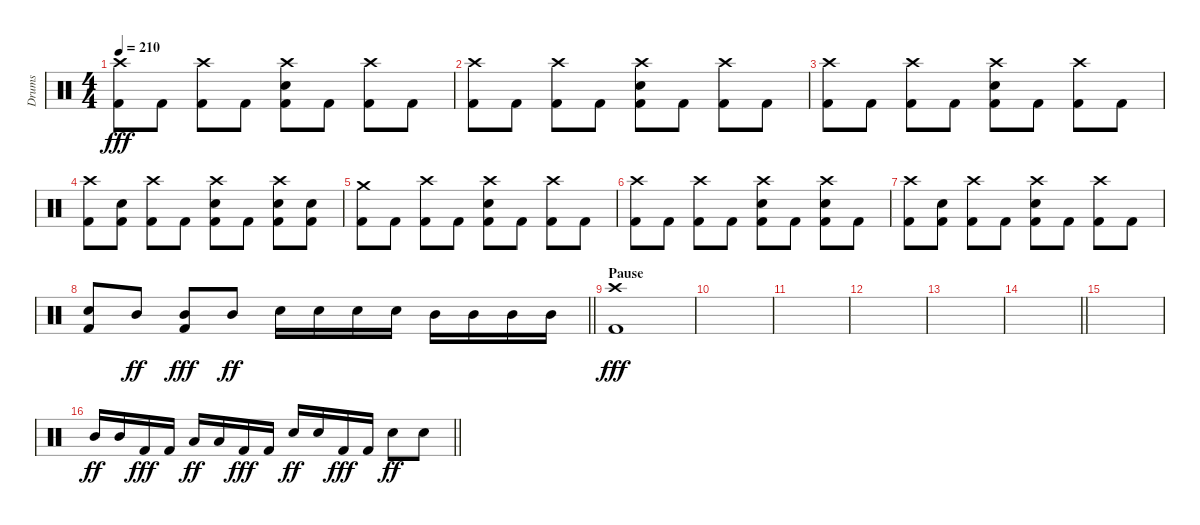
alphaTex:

\track ("Drums" "Drums") {instrument percussion}
\staff {score}
\articulation defaults
\ts (4 4)
\tempo 210
\clef neutral
\ks c
("Crash high (hit)" "Kick (hit) 2").8{dy fff} "Kick (hit) 2".8 ("Crash high (hit)" "Kick (hit) 2").8 "Kick (hit) 2".8 ("Crash high (hit)" "Snare (hit) 2" "Kick (hit) 2").8 "Kick (hit) 2".8 ("Crash high (hit)" "Kick (hit) 2").8 "Kick (hit) 2".8 |
("Crash high (hit)" "Kick (hit) 2").8 "Kick (hit) 2".8 ("Crash high (hit)" "Kick (hit) 2").8 "Kick (hit) 2".8 ("Crash high (hit)" "Snare (hit) 2" "Kick (hit) 2").8 "Kick (hit) 2".8 ("Crash high (hit)" "Kick (hit) 2").8 "Kick (hit) 2".8 |
("Crash high (hit)" "Kick (hit) 2").8 "Kick (hit) 2".8 ("Crash high (hit)" "Kick (hit) 2").8 "Kick (hit) 2".8 ("Crash high (hit)" "Snare (hit) 2" "Kick (hit) 2").8 "Kick (hit) 2".8 ("Crash high (hit)" "Kick (hit) 2").8 "Kick (hit) 2".8 |
("Crash high (hit)" "Kick (hit) 2").8 ("Snare (hit) 2" "Kick (hit) 2").8 ("Crash high (hit)" "Kick (hit) 2").8 "Kick (hit) 2".8 ("Crash high (hit)" "Snare (hit) 2" "Kick (hit) 2").8 "Kick (hit) 2".8 ("Crash high (hit)" "Snare (hit) 2" "Kick (hit) 2").8 ("Snare (hit) 2" "Kick (hit) 2").8 |
("Crash medium (hit)" "Kick (hit) 2").8 "Kick (hit) 2".8 ("Crash high (hit)" "Kick (hit) 2").8 "Kick (hit) 2".8 ("Crash high (hit)" "Snare (hit) 2" "Kick (hit) 2").8 "Kick (hit) 2".8 ("Crash high (hit)" "Kick (hit) 2").8 "Kick (hit) 2".8 |
("Crash high (hit)" "Kick (hit) 2").8 "Kick (hit) 2".8 ("Crash high (hit)" "Kick (hit) 2").8 "Kick (hit) 2".8 ("Crash high (hit)" "Snare (hit) 2" "Kick (hit) 2").8 "Kick (hit) 2".8 ("Crash high (hit)" "Snare (hit) 2" "Kick (hit) 2").8 "Kick (hit) 2".8 |
("Crash high (hit)" "Kick (hit) 2").8 ("Snare (hit) 2" "Kick (hit) 2").8 ("Crash high (hit)" "Kick (hit) 2").8 "Kick (hit) 2".8 ("Crash high (hit)" "Snare (hit) 2" "Kick (hit) 2").8 "Kick (hit) 2".8 ("Crash high (hit)" "Kick (hit) 2").8 "Kick (hit) 2".8 |
\barLineRight lightlight
("Snare (hit) 2" "Kick (hit) 2").8 "Mid Tom (hit)".8{dy ff} ("Mid Tom (hit)" "Kick (hit) 2").8{dy fff} "Mid Tom (hit)".8{dy ff} "Snare (hit) 2".16 "Snare (hit) 2".16 "Snare (hit) 2".16 "Snare (hit) 2".16 "Mid Tom (hit)".16 "Mid Tom (hit)".16 "Mid Tom (hit)".16 "Mid Tom (hit)".16 |
\section ("" "Pause")
("Crash high (hit)" "Kick (hit) 2").1{dy fff} |
|
|
|
|
\barLineRight lightlight
|
|
\barLineRight lightlight "Mid Tom (hit)".16{dy ff} "Mid Tom (hit)".16 "Kick (hit) 2".16{dy fff} "Kick (hit) 2".16 "Low Tom (hit)".16{dy ff} "Low Tom (hit)".16 "Kick (hit) 2".16{dy fff} "Kick (hit) 2".16 "Snare (hit) 2".16{dy ff} "Snare (hit) 2".16 "Kick (hit) 2".16{dy fff} "Kick (hit) 2".16 "Snare (hit) 2".8{dy ff} "Snare (hit) 2".8
